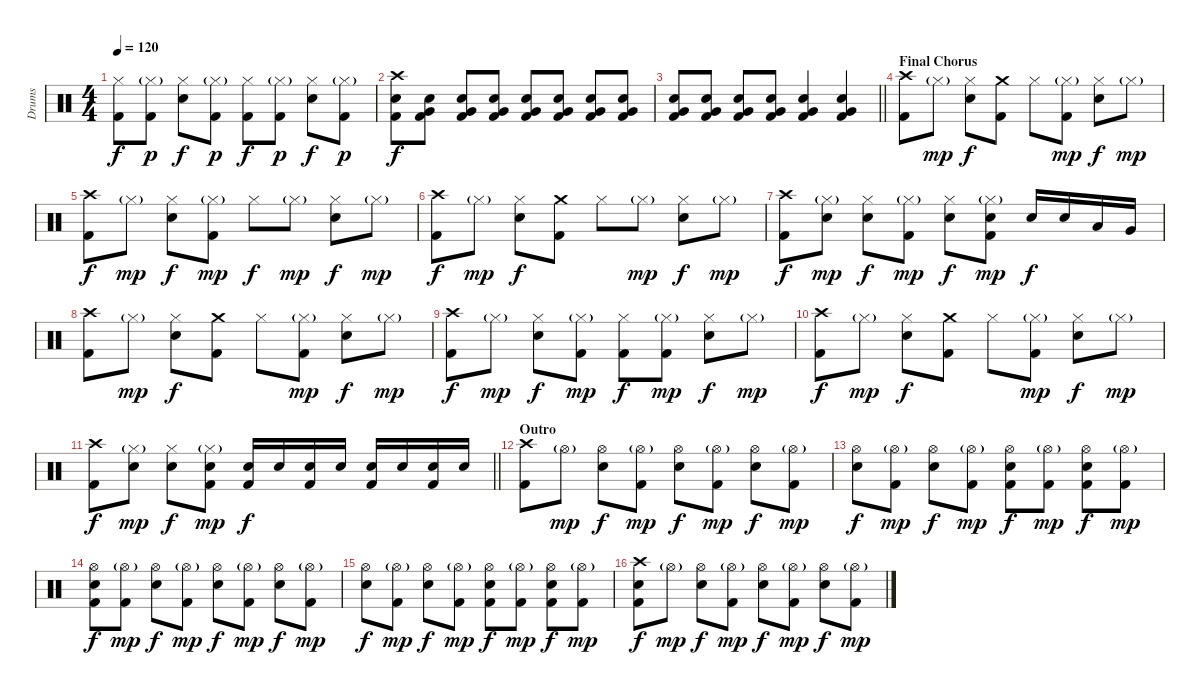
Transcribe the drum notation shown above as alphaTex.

\track ("Drums" "Drums") {instrument percussion}
\staff {score}
\articulation defaults
\ts (4 4)
\tempo 120
\clef neutral
\ks c
("Hi-Hat (closed)" "Kick (hit) 2").8{dy f} ("Hi-Hat (closed)"{g} "Kick (hit) 2").8{dy p} ("Hi-Hat (closed)" "Electric Snare (hit)").8{dy f} ("Hi-Hat (closed)"{g} "Kick (hit) 2").8{dy p} ("Hi-Hat (closed)" "Kick (hit) 2").8{dy f} ("Hi-Hat (closed)"{g} "Kick (hit) 2").8{dy p} ("Hi-Hat (closed)" "Electric Snare (hit)").8{dy f} ("Hi-Hat (closed)"{g} "Kick (hit) 2").8{dy p} |
("Crash high (hit)" "Electric Snare (hit)" "Kick (hit) 2").8{dy f} ("Very Low Tom (hit)" "Electric Snare (hit)" "Kick (hit) 2").8{volume 8} ("Very Low Tom (hit)" "Electric Snare (hit)" "Kick (hit) 2").8{volume 13} ("Very Low Tom (hit)" "Electric Snare (hit)" "Kick (hit) 2").8 ("Very Low Tom (hit)" "Electric Snare (hit)" "Kick (hit) 2").8 ("Very Low Tom (hit)" "Electric Snare (hit)" "Kick (hit) 2").8 ("Very Low Tom (hit)" "Electric Snare (hit)" "Kick (hit) 2").8 ("Very Low Tom (hit)" "Electric Snare (hit)" "Kick (hit) 2").8 |
\barLineRight lightlight
("Very Low Tom (hit)" "Electric Snare (hit)" "Kick (hit) 2").8 ("Very Low Tom (hit)" "Electric Snare (hit)" "Kick (hit) 2").8 ("Very Low Tom (hit)" "Electric Snare (hit)" "Kick (hit) 2").8 ("Very Low Tom (hit)" "Electric Snare (hit)" "Kick (hit) 2").8 ("Very Low Tom (hit)" "Electric Snare (hit)" "Kick (hit) 2").4 ("Very Low Tom (hit)" "Electric Snare (hit)" "Kick (hit) 2").4 |
\section ("" "Final Chorus")
("Crash high (hit)" "Kick (hit) 2").8 "Hi-Hat (closed)"{g}.8{dy mp} ("Hi-Hat (closed)" "Electric Snare (hit)").8{dy f} ("Crash medium (hit)" "Kick (hit) 2").8 "Hi-Hat (closed)".8 ("Hi-Hat (closed)"{g} "Kick (hit) 2").8{dy mp} ("Hi-Hat (closed)" "Electric Snare (hit)").8{dy f} "Hi-Hat (closed)"{g}.8{dy mp} |
("Crash high (hit)" "Kick (hit) 2").8{dy f} "Hi-Hat (closed)"{g}.8{dy mp} ("Hi-Hat (closed)" "Electric Snare (hit)").8{dy f} ("Hi-Hat (closed)"{g} "Kick (hit) 2").8{dy mp} "Hi-Hat (closed)".8{dy f} "Hi-Hat (closed)"{g}.8{dy mp} ("Hi-Hat (closed)" "Electric Snare (hit)").8{dy f} "Hi-Hat (closed)"{g}.8{dy mp} |
("Crash high (hit)" "Kick (hit) 2").8{dy f} "Hi-Hat (closed)"{g}.8{dy mp} ("Hi-Hat (closed)" "Electric Snare (hit)").8{dy f} ("Crash medium (hit)" "Kick (hit) 2").8 "Hi-Hat (closed)".8 "Hi-Hat (closed)"{g}.8{dy mp} ("Hi-Hat (closed)" "Electric Snare (hit)").8{dy f} "Hi-Hat (closed)"{g}.8{dy mp} |
("Crash high (hit)" "Kick (hit) 2").8{dy f} ("Hi-Hat (closed)"{g} "Electric Snare (hit)").8{dy mp} ("Hi-Hat (closed)" "Electric Snare (hit)").8{dy f} ("Hi-Hat (closed)"{g} "Kick (hit) 2").8{dy mp} ("Hi-Hat (closed)" "Electric Snare (hit)").8{dy f} ("Hi-Hat (closed)"{g} "Electric Snare (hit)" "Kick (hit) 2").8{dy mp} "Electric Snare (hit)".16{dy f} "Electric Snare (hit)".16 "Low Tom (hit)".16 "Very Low Tom (hit)".16 |
("Crash high (hit)" "Kick (hit) 2").8 "Hi-Hat (closed)"{g}.8{dy mp} ("Hi-Hat (closed)" "Electric Snare (hit)").8{dy f} ("Crash medium (hit)" "Kick (hit) 2").8 "Hi-Hat (closed)".8 ("Hi-Hat (closed)"{g} "Kick (hit) 2").8{dy mp} ("Hi-Hat (closed)" "Electric Snare (hit)").8{dy f} "Hi-Hat (closed)"{g}.8{dy mp} |
("Crash high (hit)" "Kick (hit) 2").8{dy f} "Hi-Hat (closed)"{g}.8{dy mp} ("Hi-Hat (closed)" "Electric Snare (hit)").8{dy f} ("Hi-Hat (closed)"{g} "Kick (hit) 2").8{dy mp} ("Hi-Hat (closed)" "Kick (hit) 2").8{dy f} ("Hi-Hat (closed)"{g} "Kick (hit) 2").8{dy mp} ("Hi-Hat (closed)" "Electric Snare (hit)").8{dy f} "Hi-Hat (closed)"{g}.8{dy mp} |
("Crash high (hit)" "Kick (hit) 2").8{dy f} "Hi-Hat (closed)"{g}.8{dy mp} ("Hi-Hat (closed)" "Electric Snare (hit)").8{dy f} ("Crash medium (hit)" "Kick (hit) 2").8 "Hi-Hat (closed)".8 ("Hi-Hat (closed)"{g} "Kick (hit) 2").8{dy mp} ("Hi-Hat (closed)" "Electric Snare (hit)").8{dy f} "Hi-Hat (closed)"{g}.8{dy mp} |
\barLineRight lightlight
("Crash high (hit)" "Kick (hit) 2").8{dy f} ("Hi-Hat (closed)"{g} "Electric Snare (hit)").8{dy mp} ("Hi-Hat (closed)" "Electric Snare (hit)").8{dy f} ("Hi-Hat (closed)"{g} "Electric Snare (hit)" "Kick (hit) 2").8{dy mp} ("Electric Snare (hit)" "Kick (hit) 2").16{dy f} "Electric Snare (hit)".16 ("Electric Snare (hit)" "Kick (hit) 2").16 "Electric Snare (hit)".16 ("Electric Snare (hit)" "Kick (hit) 2").16 "Electric Snare (hit)".16 ("Electric Snare (hit)" "Kick (hit) 2").16 "Electric Snare (hit)".16 |
\section ("" "Outro")
("Crash high (hit)" "Kick (hit) 2").8 "Hi-Hat (open)"{g}.8{dy mp} ("Hi-Hat (open)" "Electric Snare (hit)").8{dy f} ("Hi-Hat (open)"{g} "Kick (hit) 2").8{dy mp} ("Hi-Hat (open)" "Electric Snare (hit)").8{dy f} ("Hi-Hat (open)"{g} "Kick (hit) 2").8{dy mp} ("Hi-Hat (open)" "Electric Snare (hit)").8{dy f} ("Hi-Hat (open)"{g} "Kick (hit) 2").8{dy mp} |
("Hi-Hat (open)" "Electric Snare (hit)").8{dy f} ("Hi-Hat (open)"{g} "Kick (hit) 2").8{dy mp} ("Hi-Hat (open)" "Electric Snare (hit)").8{dy f} ("Hi-Hat (open)"{g} "Kick (hit) 2").8{dy mp} ("Hi-Hat (open)" "Electric Snare (hit)" "Kick (hit) 2").8{dy f} ("Hi-Hat (open)"{g} "Kick (hit) 2").8{dy mp} ("Hi-Hat (open)" "Electric Snare (hit)" "Kick (hit) 2").8{dy f} ("Hi-Hat (open)"{g} "Kick (hit) 2").8{dy mp} |
("Hi-Hat (open)" "Electric Snare (hit)" "Kick (hit) 2").8{dy f} ("Hi-Hat (open)"{g} "Kick (hit) 2").8{dy mp} ("Hi-Hat (open)" "Electric Snare (hit)").8{dy f} ("Hi-Hat (open)"{g} "Kick (hit) 2").8{dy mp} ("Hi-Hat (open)" "Electric Snare (hit)").8{dy f} ("Hi-Hat (open)"{g} "Kick (hit) 2").8{dy mp} ("Hi-Hat (open)" "Electric Snare (hit)").8{dy f} ("Hi-Hat (open)"{g} "Kick (hit) 2").8{dy mp} |
("Hi-Hat (open)" "Electric Snare (hit)").8{dy f} ("Hi-Hat (open)"{g} "Kick (hit) 2").8{dy mp} ("Hi-Hat (open)" "Electric Snare (hit)").8{dy f} ("Hi-Hat (open)"{g} "Kick (hit) 2").8{dy mp} ("Hi-Hat (open)" "Electric Snare (hit)" "Kick (hit) 2").8{dy f} ("Hi-Hat (open)"{g} "Kick (hit) 2").8{dy mp} ("Hi-Hat (open)" "Electric Snare (hit)" "Kick (hit) 2").8{dy f} ("Hi-Hat (open)"{g} "Kick (hit) 2").8{dy mp} |
("Crash high (hit)" "Electric Snare (hit)" "Kick (hit) 2").8{dy f} "Hi-Hat (open)"{g}.8{dy mp} ("Hi-Hat (open)" "Electric Snare (hit)").8{dy f} ("Hi-Hat (open)"{g} "Kick (hit) 2").8{dy mp} ("Hi-Hat (open)" "Electric Snare (hit)").8{dy f} ("Hi-Hat (open)"{g} "Kick (hit) 2").8{dy mp} ("Hi-Hat (open)" "Electric Snare (hit)").8{dy f} ("Hi-Hat (open)"{g} "Kick (hit) 2").8{dy mp}
